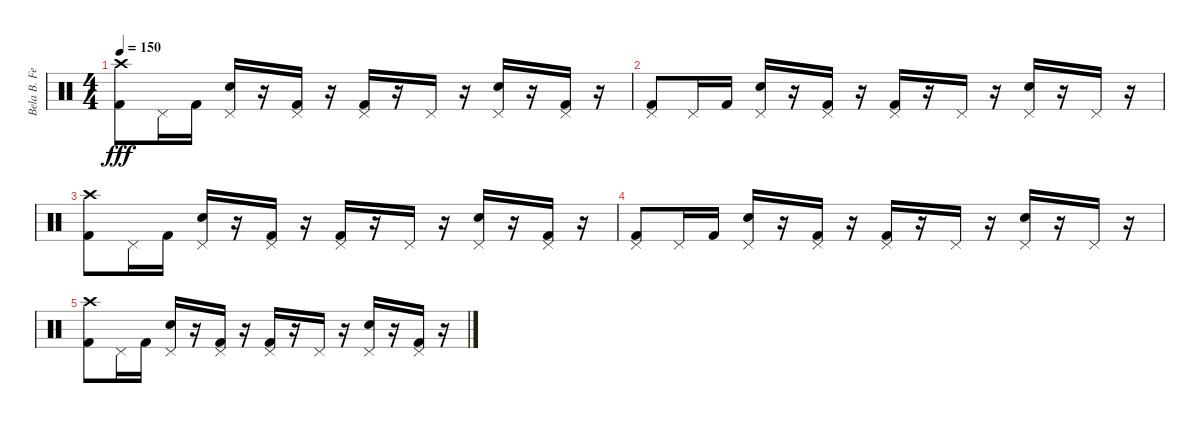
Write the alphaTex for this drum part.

\track ("Bela B. Felsenheimer" "Bela B. Fe") {instrument percussion}
\staff {score}
\articulation defaults
\ts (4 4)
\tempo 150
\clef neutral
\ks c
("Crash high (hit)" "Kick (hit) 2").8{dy fff} "Pedal Hi-Hat (hit)".16 "Kick (hit) 2".16 ("Pedal Hi-Hat (hit)" "Snare (hit) 2").16 r.16 ("Pedal Hi-Hat (hit)" "Kick (hit) 2").16 r.16 ("Pedal Hi-Hat (hit)" "Kick (hit) 2").16 r.16 "Pedal Hi-Hat (hit)".16 r.16 ("Pedal Hi-Hat (hit)" "Snare (hit) 2").16 r.16 ("Pedal Hi-Hat (hit)" "Kick (hit) 2").16 r.16 |
("Pedal Hi-Hat (hit)" "Kick (hit) 2").8 "Pedal Hi-Hat (hit)".16 "Kick (hit) 2".16 ("Pedal Hi-Hat (hit)" "Snare (hit) 2").16 r.16 ("Pedal Hi-Hat (hit)" "Kick (hit) 2").16 r.16 ("Pedal Hi-Hat (hit)" "Kick (hit) 2").16 r.16 "Pedal Hi-Hat (hit)".16 r.16 ("Pedal Hi-Hat (hit)" "Snare (hit) 2").16 r.16 "Pedal Hi-Hat (hit)".16 r.16 |
("Crash high (hit)" "Kick (hit) 2").8 "Pedal Hi-Hat (hit)".16 "Kick (hit) 2".16 ("Pedal Hi-Hat (hit)" "Snare (hit) 2").16 r.16 ("Pedal Hi-Hat (hit)" "Kick (hit) 2").16 r.16 ("Pedal Hi-Hat (hit)" "Kick (hit) 2").16 r.16 "Pedal Hi-Hat (hit)".16 r.16 ("Pedal Hi-Hat (hit)" "Snare (hit) 2").16 r.16 ("Pedal Hi-Hat (hit)" "Kick (hit) 2").16 r.16 |
("Pedal Hi-Hat (hit)" "Kick (hit) 2").8 "Pedal Hi-Hat (hit)".16 "Kick (hit) 2".16 ("Pedal Hi-Hat (hit)" "Snare (hit) 2").16 r.16 ("Pedal Hi-Hat (hit)" "Kick (hit) 2").16 r.16 ("Pedal Hi-Hat (hit)" "Kick (hit) 2").16 r.16 "Pedal Hi-Hat (hit)".16 r.16 ("Pedal Hi-Hat (hit)" "Snare (hit) 2").16 r.16 "Pedal Hi-Hat (hit)".16 r.16 |
("Crash high (hit)" "Kick (hit) 2").8 "Pedal Hi-Hat (hit)".16 "Kick (hit) 2".16 ("Pedal Hi-Hat (hit)" "Snare (hit) 2").16 r.16 ("Pedal Hi-Hat (hit)" "Kick (hit) 2").16 r.16 ("Pedal Hi-Hat (hit)" "Kick (hit) 2").16 r.16 "Pedal Hi-Hat (hit)".16 r.16 ("Pedal Hi-Hat (hit)" "Snare (hit) 2").16 r.16 ("Pedal Hi-Hat (hit)" "Kick (hit) 2").16 r.16
